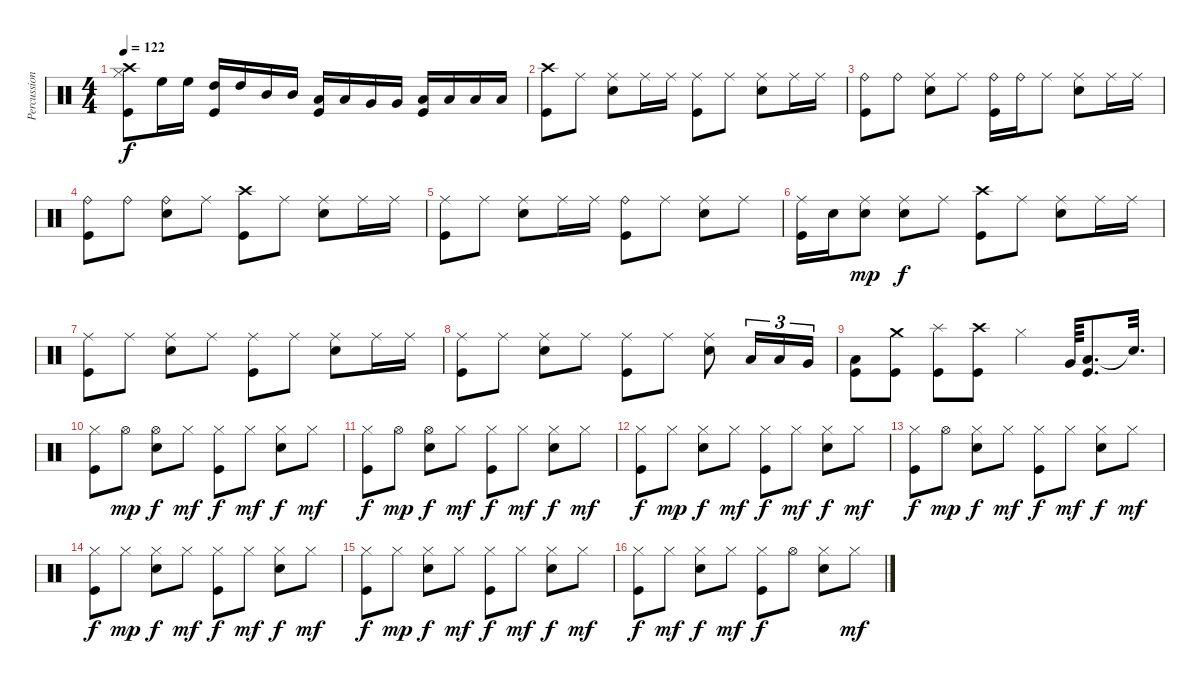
\track ("Percussion" "Percussion") {instrument percussion}
\staff {score}
\articulation defaults
\ts (4 4)
\tempo 122
\clef neutral
\ks c
("Crash high (hit)" "Hi-Hat (closed)" "Kick (hit)").8{dy f} "High Floor Tom (hit)".16 "High Floor Tom (hit)".16 ("High Tom (hit)" "Kick (hit)").16 "High Tom (hit)".16 "Mid Tom (hit)".16 "Mid Tom (hit)".16 ("Low Tom (hit)" "Kick (hit)").16 "Low Tom (hit)".16 "Very Low Tom (hit)".16 "Very Low Tom (hit)".16 ("Low Floor Tom (hit)" "Kick (hit)").16 "Low Floor Tom (hit)".16 "Low Floor Tom (hit)".16 "Low Floor Tom (hit)".16 |
("Crash high (hit)" "Kick (hit)").8 "Ride (middle)".8 ("Ride (middle)" "Snare (hit) 2").8 "Ride (middle)".16 "Ride (middle)".16 ("Ride (middle)" "Kick (hit)").8 "Ride (middle)".8 ("Ride (middle)" "Snare (hit) 2").8 "Ride (middle)".16 "Ride (middle)".16 |
("Ride (bell)" "Kick (hit)").8 "Ride (bell)".8 ("Ride (middle)" "Snare (hit) 2").8 "Ride (middle)".8 ("Ride (bell)" "Kick (hit)").16 "Ride (bell)".16 "Ride (middle)".8 ("Ride (middle)" "Snare (hit) 2").8 "Ride (middle)".16 "Ride (middle)".16 |
("Ride (bell)" "Kick (hit)").8 "Ride (bell)".8 ("Ride (bell)" "Snare (hit) 2").8 "Ride (middle)".8 ("Crash high (hit)" "Kick (hit)").8 "Ride (middle)".8 ("Ride (middle)" "Snare (hit) 2").8 "Ride (middle)".16 "Ride (middle)".16 |
("Ride (middle)" "Kick (hit)").8 "Ride (middle)".8 ("Ride (middle)" "Snare (hit) 2").8 "Ride (middle)".16 "Ride (middle)".16 ("Ride (bell)" "Kick (hit)").8 "Ride (middle)".8 ("Ride (middle)" "Snare (hit) 2").8 "Ride (middle)".8 |
("Ride (middle)" "Kick (hit)").16 "Snare (hit) 2".16 ("Ride (middle)" "Snare (hit) 2").8{dy mp} ("Ride (middle)" "Snare (hit) 2").8{dy f} "Ride (middle)".8 ("Crash high (hit)" "Kick (hit)").8 "Ride (middle)".8 ("Ride (middle)" "Snare (hit) 2").8 "Ride (middle)".16 "Ride (middle)".16 |
("Ride (middle)" "Kick (hit)").8 "Ride (middle)".8 ("Ride (middle)" "Snare (hit) 2").8 "Ride (middle)".8 ("Ride (middle)" "Kick (hit)").8 "Ride (middle)".8 ("Ride (middle)" "Snare (hit) 2").8 "Ride (middle)".16 "Ride (middle)".16 |
("Ride (middle)" "Kick (hit)").8 "Ride (middle)".8 ("Ride (middle)" "Snare (hit) 2").8 "Ride (middle)".8 ("Ride (middle)" "Kick (hit)").8 "Ride (middle)".8 ("Ride (middle)" "Snare (hit) 2").8 "Low Tom (hit)".16{tu (3 2)} "Low Tom (hit)".16{tu (3 2)} "Very Low Tom (hit)".16{tu (3 2)} |
("Low Floor Tom (hit)" "Kick (hit)").8 ("Crash medium (hit)" "Kick (hit)").8 ("Splash (hit)" "Kick (hit)").8 ("Crash high (hit)" "Kick (hit)").8 "Hi-Hat (closed)".4 "Very Low Tom (hit)".64 ("Low Floor Tom (hit)" "Kick (hit)").8{d} "Snare (hit)"{t}.32{d} |
("Hi-Hat (closed)" "Kick (hit)").8 "Hi-Hat (open)".8{dy mp} ("Hi-Hat (open)" "Snare (hit) 2").8{dy f} "Hi-Hat (closed)".8{dy mf} ("Hi-Hat (closed)" "Kick (hit)").8{dy f} "Hi-Hat (closed)".8{dy mf} ("Hi-Hat (closed)" "Snare (hit) 2").8{dy f} "Hi-Hat (closed)".8{dy mf} |
("Hi-Hat (closed)" "Kick (hit)").8{dy f} "Hi-Hat (open)".8{dy mp} ("Hi-Hat (open)" "Snare (hit) 2").8{dy f} "Hi-Hat (closed)".8{dy mf} ("Hi-Hat (closed)" "Kick (hit)").8{dy f} "Hi-Hat (closed)".8{dy mf} ("Hi-Hat (closed)" "Snare (hit) 2").8{dy f} "Hi-Hat (closed)".8{dy mf} |
("Hi-Hat (closed)" "Kick (hit)").8{dy f} "Hi-Hat (closed)".8{dy mp} ("Hi-Hat (closed)" "Snare (hit) 2").8{dy f} "Hi-Hat (closed)".8{dy mf} ("Hi-Hat (closed)" "Kick (hit)").8{dy f} "Hi-Hat (closed)".8{dy mf} ("Hi-Hat (closed)" "Snare (hit) 2").8{dy f} "Hi-Hat (closed)".8{dy mf} |
("Hi-Hat (closed)" "Kick (hit)").8{dy f} "Hi-Hat (open)".8{dy mp} ("Hi-Hat (closed)" "Snare (hit) 2").8{dy f} "Hi-Hat (closed)".8{dy mf} ("Hi-Hat (closed)" "Kick (hit)").8{dy f} "Hi-Hat (closed)".8{dy mf} ("Hi-Hat (closed)" "Snare (hit) 2").8{dy f} "Hi-Hat (closed)".8{dy mf} |
("Hi-Hat (closed)" "Kick (hit)").8{dy f} "Hi-Hat (closed)".8{dy mp} ("Hi-Hat (closed)" "Snare (hit) 2").8{dy f} "Hi-Hat (closed)".8{dy mf} ("Hi-Hat (closed)" "Kick (hit)").8{dy f} "Hi-Hat (closed)".8{dy mf} ("Hi-Hat (closed)" "Snare (hit) 2").8{dy f} "Hi-Hat (closed)".8{dy mf} |
("Hi-Hat (closed)" "Kick (hit)").8{dy f} "Hi-Hat (closed)".8{dy mp} ("Hi-Hat (closed)" "Snare (hit) 2").8{dy f} "Hi-Hat (closed)".8{dy mf} ("Hi-Hat (closed)" "Kick (hit)").8{dy f} "Hi-Hat (closed)".8{dy mf} ("Hi-Hat (closed)" "Snare (hit) 2").8{dy f} "Hi-Hat (closed)".8{dy mf} |
("Hi-Hat (closed)" "Kick (hit)").8{dy f} "Hi-Hat (closed)".8{dy mf} ("Hi-Hat (closed)" "Snare (hit) 2").8{dy f} "Hi-Hat (closed)".8{dy mf} ("Hi-Hat (closed)" "Kick (hit)").8{dy f} "Hi-Hat (open)".8 ("Hi-Hat (closed)" "Snare (hit) 2").8 "Hi-Hat (closed)".8{dy mf}
